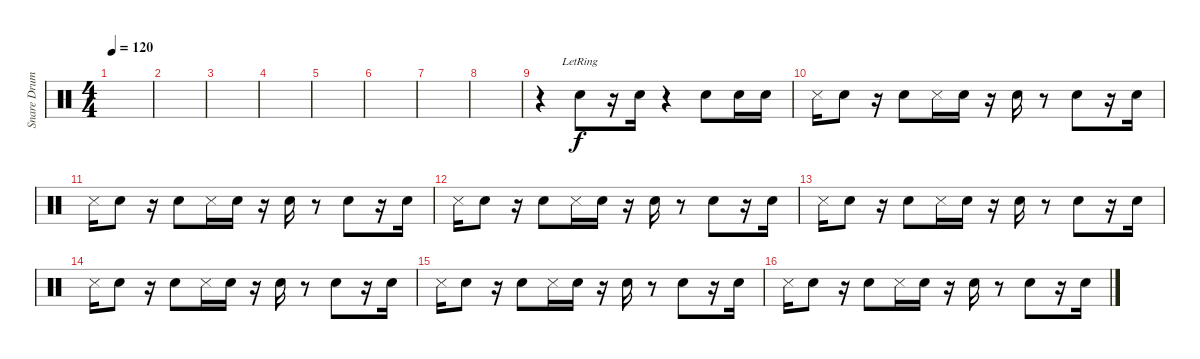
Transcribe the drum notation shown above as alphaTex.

\track ("Snare Drum" "Snare Drum") {instrument percussion}
\staff {score}
\articulation defaults
\ts (4 4)
\tempo 120
\clef neutral
\ks c
|
|
|
|
|
|
|
|
r.4 "Electric Snare (hit)"{lr}.8 r.16 "Electric Snare (hit)".16 r.4 "Electric Snare (hit)".8 "Electric Snare (hit)".16 "Electric Snare (hit)".16 |
"Snare (side stick) 3".16 "Electric Snare (hit)".8 r.16 "Electric Snare (hit)".8 "Snare (side stick) 3".16 "Electric Snare (hit)".16 r.16 "Electric Snare (hit)".16 r.8 "Electric Snare (hit)".8 r.16 "Electric Snare (hit)".16 |
"Snare (side stick) 3".16 "Electric Snare (hit)".8 r.16 "Electric Snare (hit)".8 "Snare (side stick) 3".16 "Electric Snare (hit)".16 r.16 "Electric Snare (hit)".16 r.8 "Electric Snare (hit)".8 r.16 "Electric Snare (hit)".16 |
"Snare (side stick) 3".16 "Electric Snare (hit)".8 r.16 "Electric Snare (hit)".8 "Snare (side stick) 3".16 "Electric Snare (hit)".16 r.16 "Electric Snare (hit)".16 r.8 "Electric Snare (hit)".8 r.16 "Electric Snare (hit)".16 |
"Snare (side stick) 3".16 "Electric Snare (hit)".8 r.16 "Electric Snare (hit)".8 "Snare (side stick) 3".16 "Electric Snare (hit)".16 r.16 "Electric Snare (hit)".16 r.8 "Electric Snare (hit)".8 r.16 "Electric Snare (hit)".16 |
"Snare (side stick) 3".16 "Electric Snare (hit)".8 r.16 "Electric Snare (hit)".8 "Snare (side stick) 3".16 "Electric Snare (hit)".16 r.16 "Electric Snare (hit)".16 r.8 "Electric Snare (hit)".8 r.16 "Electric Snare (hit)".16 |
"Snare (side stick) 3".16 "Electric Snare (hit)".8 r.16 "Electric Snare (hit)".8 "Snare (side stick) 3".16 "Electric Snare (hit)".16 r.16 "Electric Snare (hit)".16 r.8 "Electric Snare (hit)".8 r.16 "Electric Snare (hit)".16 |
"Snare (side stick) 3".16 "Electric Snare (hit)".8 r.16 "Electric Snare (hit)".8 "Snare (side stick) 3".16 "Electric Snare (hit)".16 r.16 "Electric Snare (hit)".16 r.8 "Electric Snare (hit)".8 r.16 "Electric Snare (hit)".16
